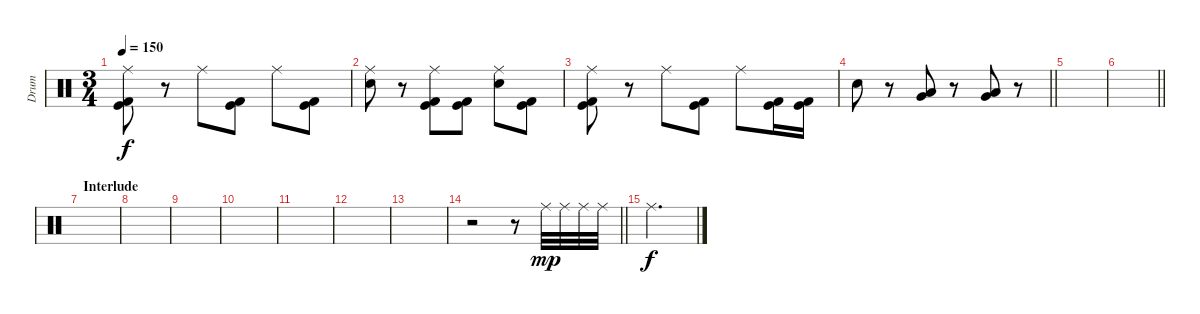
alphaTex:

\track ("Drum" "Drum") {instrument percussion}
\staff {score}
\articulation defaults
\ts (3 4)
\tempo 150
\clef neutral
\ks c
("Ride (middle)" "Kick (hit)" "Kick (hit) 2").8{dy f} r.8 "Ride (middle)".8 ("Kick (hit)" "Kick (hit) 2").8 "Ride (middle)".8 ("Kick (hit)" "Kick (hit) 2").8 |
("Ride (middle)" "Electric Snare (hit)").8 r.8 ("Ride (middle)" "Kick (hit)" "Kick (hit) 2").8 ("Kick (hit)" "Kick (hit) 2").8 ("Ride (middle)" "Electric Snare (hit)").8 ("Kick (hit)" "Kick (hit) 2").8 |
("Ride (middle)" "Kick (hit)" "Kick (hit) 2").8 r.8 "Ride (middle)".8 ("Kick (hit)" "Kick (hit) 2").8 "Ride (middle)".8 ("Kick (hit)" "Kick (hit) 2").16 ("Kick (hit)" "Kick (hit) 2").16 |
\barLineRight lightlight "Electric Snare (hit)".8
r.8 ("Low Floor Tom (hit)" "Very Low Tom (hit)").8 r.8 ("Low Floor Tom (hit)" "Very Low Tom (hit)").8 r.8 |
|
\barLineRight lightlight
|
\section ("" "Interlude")
|
|
|
|
|
|
|
\barLineRight lightlight
r.2 r.8 "Ride (middle)".32{dy mp} "Ride (middle)".32 "Ride (middle)".32 "Ride (middle)".32 |
"Ride (middle)".2{d dy f}
